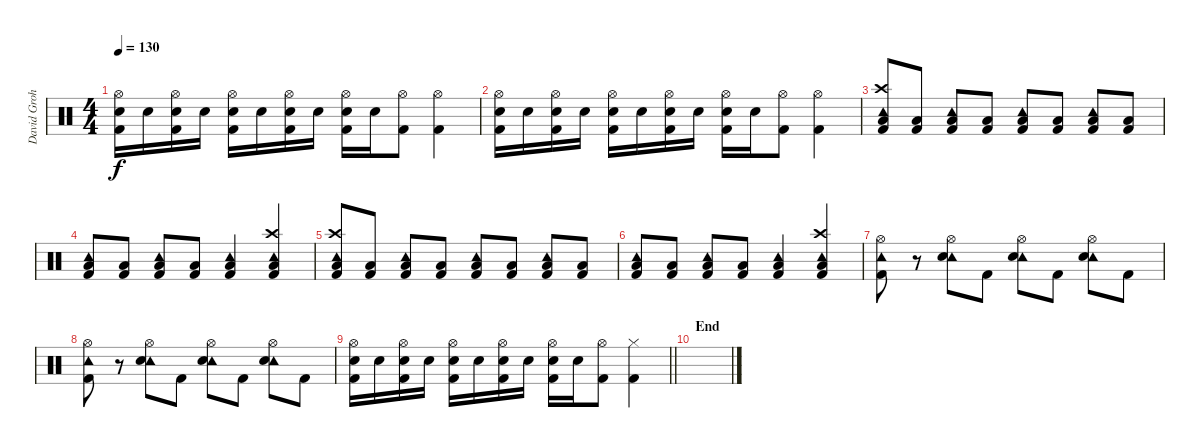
\track ("David Grohl" "David Groh") {instrument percussion}
\staff {score}
\articulation defaults
\ts (4 4)
\tempo 130
\clef neutral
\ks c
("Hi-Hat (open)" "Snare (hit) 2" "Kick (hit) 2").16{dy f} "Snare (hit) 2".16 ("Hi-Hat (open)" "Snare (hit) 2" "Kick (hit) 2").16 "Snare (hit) 2".16 ("Hi-Hat (open)" "Snare (hit) 2" "Kick (hit) 2").16 "Snare (hit) 2".16 ("Hi-Hat (open)" "Snare (hit) 2" "Kick (hit) 2").16 "Snare (hit) 2".16 ("Hi-Hat (open)" "Snare (hit) 2" "Kick (hit) 2").16 "Snare (hit) 2".16 ("Hi-Hat (open)" "Kick (hit) 2").8 ("Hi-Hat (open)" "Kick (hit) 2").4 |
("Hi-Hat (open)" "Snare (hit) 2" "Kick (hit) 2").16 "Snare (hit) 2".16 ("Hi-Hat (open)" "Snare (hit) 2" "Kick (hit) 2").16 "Snare (hit) 2".16 ("Hi-Hat (open)" "Snare (hit) 2" "Kick (hit) 2").16 "Snare (hit) 2".16 ("Hi-Hat (open)" "Snare (hit) 2" "Kick (hit) 2").16 "Snare (hit) 2".16 ("Hi-Hat (open)" "Snare (hit) 2" "Kick (hit) 2").16 "Snare (hit) 2".16 ("Hi-Hat (open)" "Kick (hit) 2").8 ("Hi-Hat (open)" "Kick (hit) 2").4 |
("Crash high (hit)" "Tambourine (hit)" "Low Floor Tom (hit)" "Kick (hit) 2").8 ("Low Floor Tom (hit)" "Kick (hit) 2").8 ("Tambourine (hit)" "Low Floor Tom (hit)" "Kick (hit) 2").8 ("Low Floor Tom (hit)" "Kick (hit) 2").8 ("Tambourine (hit)" "Low Floor Tom (hit)" "Kick (hit) 2").8 ("Low Floor Tom (hit)" "Kick (hit) 2").8 ("Tambourine (hit)" "Low Floor Tom (hit)" "Kick (hit) 2").8 ("Low Floor Tom (hit)" "Kick (hit) 2").8 |
("Tambourine (hit)" "Low Floor Tom (hit)" "Kick (hit) 2").8 ("Low Floor Tom (hit)" "Kick (hit) 2").8 ("Tambourine (hit)" "Low Floor Tom (hit)" "Kick (hit) 2").8 ("Low Floor Tom (hit)" "Kick (hit) 2").8 ("Tambourine (hit)" "Low Floor Tom (hit)" "Kick (hit) 2").4 ("Crash high (hit)" "Tambourine (hit)" "Low Floor Tom (hit)" "Kick (hit) 2").4 |
("Crash high (hit)" "Tambourine (hit)" "Low Floor Tom (hit)" "Kick (hit) 2").8 ("Low Floor Tom (hit)" "Kick (hit) 2").8 ("Tambourine (hit)" "Low Floor Tom (hit)" "Kick (hit) 2").8 ("Low Floor Tom (hit)" "Kick (hit) 2").8 ("Tambourine (hit)" "Low Floor Tom (hit)" "Kick (hit) 2").8 ("Low Floor Tom (hit)" "Kick (hit) 2").8 ("Tambourine (hit)" "Low Floor Tom (hit)" "Kick (hit) 2").8 ("Low Floor Tom (hit)" "Kick (hit) 2").8 |
("Tambourine (hit)" "Low Floor Tom (hit)" "Kick (hit) 2").8 ("Low Floor Tom (hit)" "Kick (hit) 2").8 ("Tambourine (hit)" "Low Floor Tom (hit)" "Kick (hit) 2").8 ("Low Floor Tom (hit)" "Kick (hit) 2").8 ("Tambourine (hit)" "Low Floor Tom (hit)" "Kick (hit) 2").4 ("Crash high (hit)" "Tambourine (hit)" "Low Floor Tom (hit)" "Kick (hit) 2").4 |
("Tambourine (hit)" "Hi-Hat (open)" "Kick (hit) 2").8 r.8 ("Tambourine (hit)" "Hi-Hat (open)" "Snare (hit) 2").8 "Kick (hit) 2".8 ("Tambourine (hit)" "Hi-Hat (open)" "Snare (hit) 2").8 "Kick (hit) 2".8 ("Tambourine (hit)" "Hi-Hat (open)" "Snare (hit) 2").8 "Kick (hit) 2".8 |
("Tambourine (hit)" "Hi-Hat (open)" "Kick (hit) 2").8 r.8 ("Tambourine (hit)" "Hi-Hat (open)" "Snare (hit) 2").8 "Kick (hit) 2".8 ("Tambourine (hit)" "Hi-Hat (open)" "Snare (hit) 2").8 "Kick (hit) 2".8 ("Tambourine (hit)" "Hi-Hat (open)" "Snare (hit) 2").8 "Kick (hit) 2".8 |
\barLineRight lightlight
("Hi-Hat (open)" "Snare (hit) 2" "Kick (hit) 2").16 "Snare (hit) 2".16 ("Hi-Hat (open)" "Snare (hit) 2" "Kick (hit) 2").16 "Snare (hit) 2".16 ("Hi-Hat (open)" "Snare (hit) 2" "Kick (hit) 2").16 "Snare (hit) 2".16 ("Hi-Hat (open)" "Snare (hit) 2" "Kick (hit) 2").16 "Snare (hit) 2".16 ("Hi-Hat (open)" "Snare (hit) 2" "Kick (hit) 2").16 "Snare (hit) 2".16 ("Hi-Hat (open)" "Kick (hit) 2").8 ("Hi-Hat (closed)" "Kick (hit) 2").4 |
\section ("" "End")
